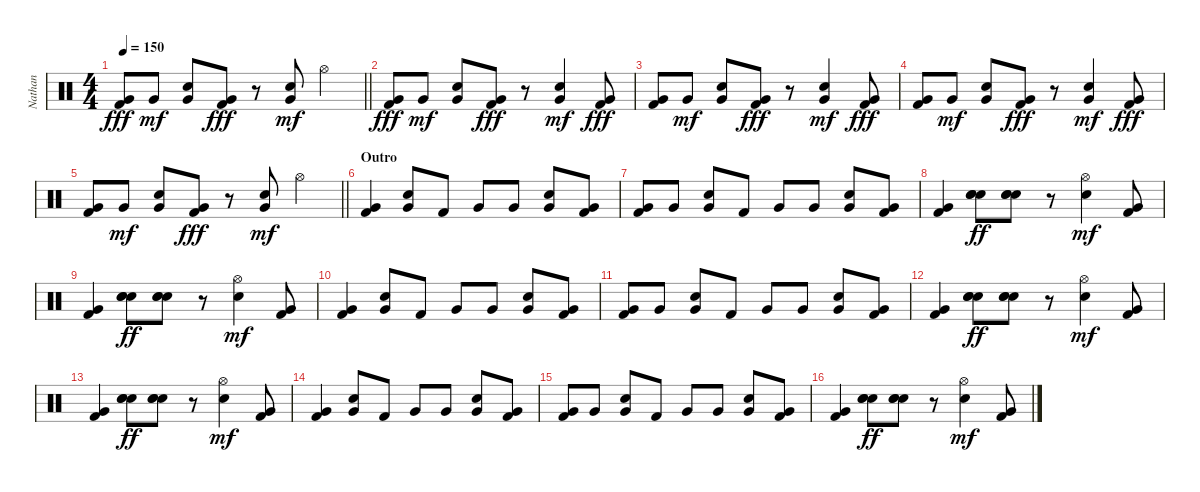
\track ("Nathan" "Nathan") {instrument percussion}
\staff {score}
\articulation defaults
\ts (4 4)
\tempo 150
\clef neutral
\barLineRight lightlight
\ks c
("Very Low Tom (hit)" "Kick (hit) 2").8{dy fff} "Very Low Tom (hit)".8{dy mf} ("Very Low Tom (hit)" "Electric Snare (hit)").8 ("Very Low Tom (hit)" "Kick (hit) 2").8{dy fff} r.8 ("Very Low Tom (hit)" "Electric Snare (hit)").8{dy mf} "Hi-Hat (open)".4 |
("Very Low Tom (hit)" "Kick (hit) 2").8{dy fff} "Very Low Tom (hit)".8{dy mf} ("Very Low Tom (hit)" "Electric Snare (hit)").8 ("Very Low Tom (hit)" "Kick (hit) 2").8{dy fff} r.8 ("Very Low Tom (hit)" "Electric Snare (hit)").4{dy mf} ("Very Low Tom (hit)" "Kick (hit) 2").8{dy fff} |
("Very Low Tom (hit)" "Kick (hit) 2").8 "Very Low Tom (hit)".8{dy mf} ("Very Low Tom (hit)" "Electric Snare (hit)").8 ("Very Low Tom (hit)" "Kick (hit) 2").8{dy fff} r.8 ("Very Low Tom (hit)" "Electric Snare (hit)").4{dy mf} ("Very Low Tom (hit)" "Kick (hit) 2").8{dy fff} |
("Very Low Tom (hit)" "Kick (hit) 2").8 "Very Low Tom (hit)".8{dy mf} ("Very Low Tom (hit)" "Electric Snare (hit)").8 ("Very Low Tom (hit)" "Kick (hit) 2").8{dy fff} r.8 ("Very Low Tom (hit)" "Electric Snare (hit)").4{dy mf} ("Very Low Tom (hit)" "Kick (hit) 2").8{dy fff} |
\barLineRight lightlight
("Very Low Tom (hit)" "Kick (hit) 2").8 "Very Low Tom (hit)".8{dy mf} ("Very Low Tom (hit)" "Electric Snare (hit)").8 ("Very Low Tom (hit)" "Kick (hit) 2").8{dy fff} r.8 ("Very Low Tom (hit)" "Electric Snare (hit)").8{dy mf} "Hi-Hat (open)".4 |
\section ("" "Outro")
("Very Low Tom (hit)" "Kick (hit) 2").4 ("Very Low Tom (hit)" "Electric Snare (hit)").8 "Kick (hit) 2".8 "Very Low Tom (hit)".8 "Very Low Tom (hit)".8 ("Very Low Tom (hit)" "Electric Snare (hit)").8 ("Very Low Tom (hit)" "Kick (hit) 2").8 |
("Very Low Tom (hit)" "Kick (hit) 2").8 "Very Low Tom (hit)".8 ("Very Low Tom (hit)" "Electric Snare (hit)").8 "Kick (hit) 2".8 "Very Low Tom (hit)".8 "Very Low Tom (hit)".8 ("Very Low Tom (hit)" "Electric Snare (hit)").8 ("Very Low Tom (hit)" "Kick (hit) 2").8 |
("Very Low Tom (hit)" "Kick (hit) 2").4 ("Electric Snare (hit)" "Hand Clap (hit)" "Hand Clap (hit)").8{dy ff} ("Electric Snare (hit)" "Hand Clap (hit)" "Hand Clap (hit)").8 r.8 ("Electric Snare (hit)" "Hi-Hat (open)").4{dy mf} ("Very Low Tom (hit)" "Kick (hit) 2").8 |
("Very Low Tom (hit)" "Kick (hit) 2").4 ("Electric Snare (hit)" "Hand Clap (hit)" "Hand Clap (hit)").8{dy ff} ("Electric Snare (hit)" "Hand Clap (hit)" "Hand Clap (hit)").8 r.8 ("Electric Snare (hit)" "Hi-Hat (open)").4{dy mf} ("Very Low Tom (hit)" "Kick (hit) 2").8 |
("Very Low Tom (hit)" "Kick (hit) 2").4 ("Very Low Tom (hit)" "Electric Snare (hit)").8 "Kick (hit) 2".8 "Very Low Tom (hit)".8 "Very Low Tom (hit)".8 ("Very Low Tom (hit)" "Electric Snare (hit)").8 ("Very Low Tom (hit)" "Kick (hit) 2").8 |
("Very Low Tom (hit)" "Kick (hit) 2").8 "Very Low Tom (hit)".8 ("Very Low Tom (hit)" "Electric Snare (hit)").8 "Kick (hit) 2".8 "Very Low Tom (hit)".8 "Very Low Tom (hit)".8 ("Very Low Tom (hit)" "Electric Snare (hit)").8 ("Very Low Tom (hit)" "Kick (hit) 2").8 |
("Very Low Tom (hit)" "Kick (hit) 2").4 ("Electric Snare (hit)" "Hand Clap (hit)" "Hand Clap (hit)").8{dy ff} ("Electric Snare (hit)" "Hand Clap (hit)" "Hand Clap (hit)").8 r.8 ("Electric Snare (hit)" "Hi-Hat (open)").4{dy mf} ("Very Low Tom (hit)" "Kick (hit) 2").8 |
("Very Low Tom (hit)" "Kick (hit) 2").4 ("Electric Snare (hit)" "Hand Clap (hit)" "Hand Clap (hit)").8{dy ff} ("Electric Snare (hit)" "Hand Clap (hit)" "Hand Clap (hit)").8 r.8 ("Electric Snare (hit)" "Hi-Hat (open)").4{dy mf} ("Very Low Tom (hit)" "Kick (hit) 2").8 |
("Very Low Tom (hit)" "Kick (hit) 2").4 ("Very Low Tom (hit)" "Electric Snare (hit)").8 "Kick (hit) 2".8 "Very Low Tom (hit)".8 "Very Low Tom (hit)".8 ("Very Low Tom (hit)" "Electric Snare (hit)").8 ("Very Low Tom (hit)" "Kick (hit) 2").8 |
("Very Low Tom (hit)" "Kick (hit) 2").8 "Very Low Tom (hit)".8 ("Very Low Tom (hit)" "Electric Snare (hit)").8 "Kick (hit) 2".8 "Very Low Tom (hit)".8 "Very Low Tom (hit)".8 ("Very Low Tom (hit)" "Electric Snare (hit)").8 ("Very Low Tom (hit)" "Kick (hit) 2").8 |
("Very Low Tom (hit)" "Kick (hit) 2").4 ("Electric Snare (hit)" "Hand Clap (hit)" "Hand Clap (hit)").8{dy ff} ("Electric Snare (hit)" "Hand Clap (hit)" "Hand Clap (hit)").8 r.8 ("Electric Snare (hit)" "Hi-Hat (open)").4{dy mf} ("Very Low Tom (hit)" "Kick (hit) 2").8
